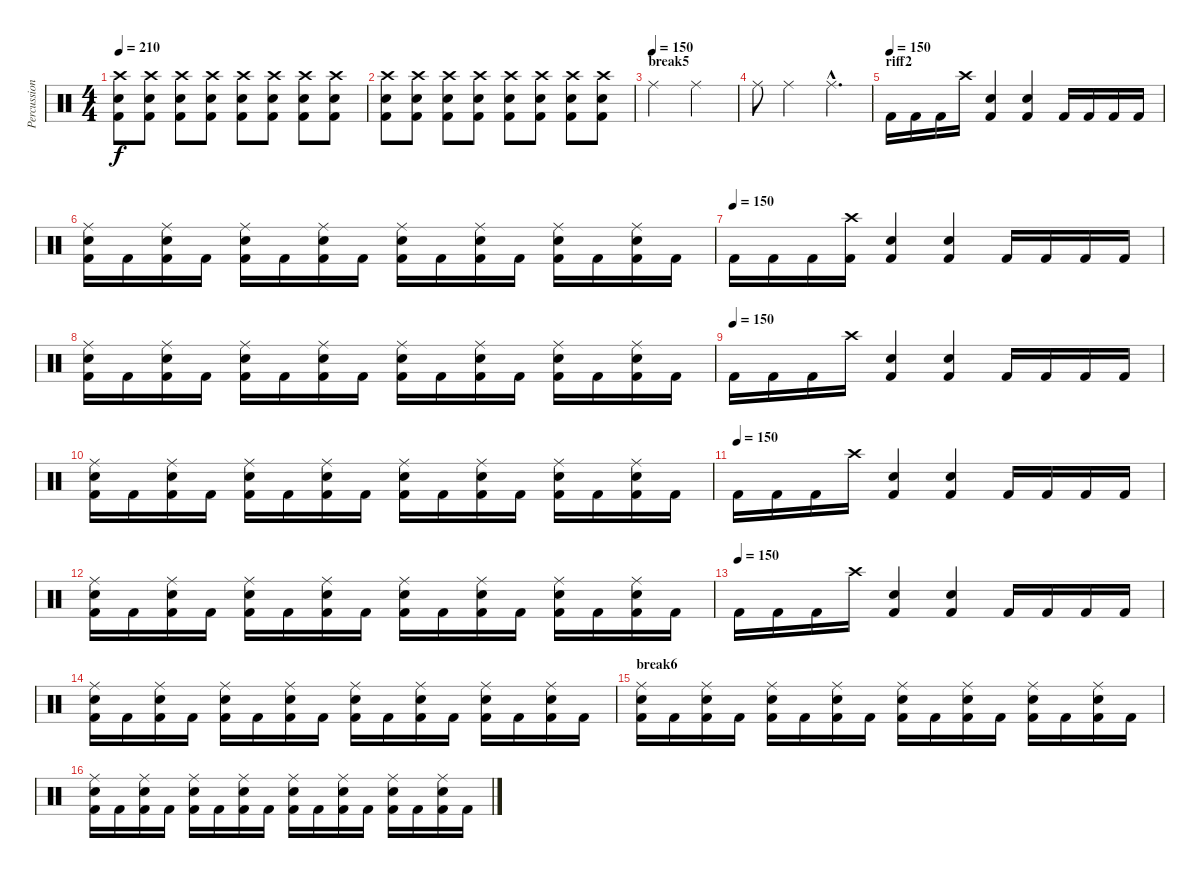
\track ("Percussion" "Percussion") {instrument percussion}
\staff {score}
\articulation defaults
\ts (4 4)
\tempo 210
\clef neutral
\ks c
("Crash high (hit)" "Snare (hit) 2" "Kick (hit) 2").8{dy f} ("Crash high (hit)" "Snare (hit) 2" "Kick (hit) 2").8 ("Crash high (hit)" "Snare (hit) 2" "Kick (hit) 2").8 ("Crash high (hit)" "Snare (hit) 2" "Kick (hit) 2").8 ("Crash high (hit)" "Snare (hit) 2" "Kick (hit) 2").8 ("Crash high (hit)" "Snare (hit) 2" "Kick (hit) 2").8 ("Crash high (hit)" "Snare (hit) 2" "Kick (hit) 2").8 ("Crash high (hit)" "Snare (hit) 2" "Kick (hit) 2").8 |
("Crash high (hit)" "Snare (hit) 2" "Kick (hit) 2").8 ("Crash high (hit)" "Snare (hit) 2" "Kick (hit) 2").8 ("Crash high (hit)" "Snare (hit) 2" "Kick (hit) 2").8 ("Crash high (hit)" "Snare (hit) 2" "Kick (hit) 2").8 ("Crash high (hit)" "Snare (hit) 2" "Kick (hit) 2").8 ("Crash high (hit)" "Snare (hit) 2" "Kick (hit) 2").8 ("Crash high (hit)" "Snare (hit) 2" "Kick (hit) 2").8 ("Crash high (hit)" "Snare (hit) 2" "Kick (hit) 2").8 |
\section ("" "break5")
\tempo (150)
"Ride (middle)".2 "Ride (middle)".2 |
"Ride (middle)".8 "Ride (middle)".2 "Ride (middle)"{hac}.4{d} |
\section ("" "riff2")
\tempo (150)
"Kick (hit) 2".16 "Kick (hit) 2".16 "Kick (hit) 2".16 "Crash high (hit)".16 ("Snare (hit) 2" "Kick (hit) 2").4 ("Snare (hit) 2" "Kick (hit) 2").4 "Kick (hit) 2".16 "Kick (hit) 2".16 "Kick (hit) 2".16 "Kick (hit) 2".16 |
("Ride (middle)" "Snare (hit) 2" "Kick (hit) 2").16 "Kick (hit) 2".16 ("Ride (middle)" "Snare (hit) 2" "Kick (hit) 2").16 "Kick (hit) 2".16 ("Ride (middle)" "Snare (hit) 2" "Kick (hit) 2").16 "Kick (hit) 2".16 ("Ride (middle)" "Snare (hit) 2" "Kick (hit) 2").16 "Kick (hit) 2".16 ("Ride (middle)" "Snare (hit) 2" "Kick (hit) 2").16 "Kick (hit) 2".16 ("Ride (middle)" "Snare (hit) 2" "Kick (hit) 2").16 "Kick (hit) 2".16 ("Ride (middle)" "Snare (hit) 2" "Kick (hit) 2").16 "Kick (hit) 2".16 ("Ride (middle)" "Snare (hit) 2" "Kick (hit) 2").16 "Kick (hit) 2".16 |
\tempo (150)
"Kick (hit) 2".16 "Kick (hit) 2".16 "Kick (hit) 2".16 ("Crash high (hit)" "Kick (hit) 2").16 ("Snare (hit) 2" "Kick (hit) 2").4 ("Snare (hit) 2" "Kick (hit) 2").4 "Kick (hit) 2".16 "Kick (hit) 2".16 "Kick (hit) 2".16 "Kick (hit) 2".16 |
("Ride (middle)" "Snare (hit) 2" "Kick (hit) 2").16 "Kick (hit) 2".16 ("Ride (middle)" "Snare (hit) 2" "Kick (hit) 2").16 "Kick (hit) 2".16 ("Ride (middle)" "Snare (hit) 2" "Kick (hit) 2").16 "Kick (hit) 2".16 ("Ride (middle)" "Snare (hit) 2" "Kick (hit) 2").16 "Kick (hit) 2".16 ("Ride (middle)" "Snare (hit) 2" "Kick (hit) 2").16 "Kick (hit) 2".16 ("Ride (middle)" "Snare (hit) 2" "Kick (hit) 2").16 "Kick (hit) 2".16 ("Ride (middle)" "Snare (hit) 2" "Kick (hit) 2").16 "Kick (hit) 2".16 ("Ride (middle)" "Snare (hit) 2" "Kick (hit) 2").16 "Kick (hit) 2".16 |
\tempo (150)
"Kick (hit) 2".16 "Kick (hit) 2".16 "Kick (hit) 2".16 "Crash high (hit)".16 ("Snare (hit) 2" "Kick (hit) 2").4 ("Snare (hit) 2" "Kick (hit) 2").4 "Kick (hit) 2".16 "Kick (hit) 2".16 "Kick (hit) 2".16 "Kick (hit) 2".16 |
("Ride (middle)" "Snare (hit) 2" "Kick (hit) 2").16 "Kick (hit) 2".16 ("Ride (middle)" "Snare (hit) 2" "Kick (hit) 2").16 "Kick (hit) 2".16 ("Ride (middle)" "Snare (hit) 2" "Kick (hit) 2").16 "Kick (hit) 2".16 ("Ride (middle)" "Snare (hit) 2" "Kick (hit) 2").16 "Kick (hit) 2".16 ("Ride (middle)" "Snare (hit) 2" "Kick (hit) 2").16 "Kick (hit) 2".16 ("Ride (middle)" "Snare (hit) 2" "Kick (hit) 2").16 "Kick (hit) 2".16 ("Ride (middle)" "Snare (hit) 2" "Kick (hit) 2").16 "Kick (hit) 2".16 ("Ride (middle)" "Snare (hit) 2" "Kick (hit) 2").16 "Kick (hit) 2".16 |
\tempo (150)
"Kick (hit) 2".16 "Kick (hit) 2".16 "Kick (hit) 2".16 "Crash high (hit)".16 ("Snare (hit) 2" "Kick (hit) 2").4 ("Snare (hit) 2" "Kick (hit) 2").4 "Kick (hit) 2".16 "Kick (hit) 2".16 "Kick (hit) 2".16 "Kick (hit) 2".16 |
("Ride (middle)" "Snare (hit) 2" "Kick (hit) 2").16 "Kick (hit) 2".16 ("Ride (middle)" "Snare (hit) 2" "Kick (hit) 2").16 "Kick (hit) 2".16 ("Ride (middle)" "Snare (hit) 2" "Kick (hit) 2").16 "Kick (hit) 2".16 ("Ride (middle)" "Snare (hit) 2" "Kick (hit) 2").16 "Kick (hit) 2".16 ("Ride (middle)" "Snare (hit) 2" "Kick (hit) 2").16 "Kick (hit) 2".16 ("Ride (middle)" "Snare (hit) 2" "Kick (hit) 2").16 "Kick (hit) 2".16 ("Ride (middle)" "Snare (hit) 2" "Kick (hit) 2").16 "Kick (hit) 2".16 ("Ride (middle)" "Snare (hit) 2" "Kick (hit) 2").16 "Kick (hit) 2".16 |
\tempo (150)
"Kick (hit) 2".16 "Kick (hit) 2".16 "Kick (hit) 2".16 "Crash high (hit)".16 ("Snare (hit) 2" "Kick (hit) 2").4 ("Snare (hit) 2" "Kick (hit) 2").4 "Kick (hit) 2".16 "Kick (hit) 2".16 "Kick (hit) 2".16 "Kick (hit) 2".16 |
("Ride (middle)" "Snare (hit) 2" "Kick (hit) 2").16 "Kick (hit) 2".16 ("Ride (middle)" "Snare (hit) 2" "Kick (hit) 2").16 "Kick (hit) 2".16 ("Ride (middle)" "Snare (hit) 2" "Kick (hit) 2").16 "Kick (hit) 2".16 ("Ride (middle)" "Snare (hit) 2" "Kick (hit) 2").16 "Kick (hit) 2".16 ("Ride (middle)" "Snare (hit) 2" "Kick (hit) 2").16 "Kick (hit) 2".16 ("Ride (middle)" "Snare (hit) 2" "Kick (hit) 2").16 "Kick (hit) 2".16 ("Ride (middle)" "Snare (hit) 2" "Kick (hit) 2").16 "Kick (hit) 2".16 ("Ride (middle)" "Snare (hit) 2" "Kick (hit) 2").16 "Kick (hit) 2".16 |
\section ("" "break6")
("Ride (middle)" "Snare (hit) 2" "Kick (hit) 2").16 "Kick (hit) 2".16 ("Ride (middle)" "Snare (hit) 2" "Kick (hit) 2").16 "Kick (hit) 2".16 ("Ride (middle)" "Snare (hit) 2" "Kick (hit) 2").16 "Kick (hit) 2".16 ("Ride (middle)" "Snare (hit) 2" "Kick (hit) 2").16 "Kick (hit) 2".16 ("Ride (middle)" "Snare (hit) 2" "Kick (hit) 2").16 "Kick (hit) 2".16 ("Ride (middle)" "Snare (hit) 2" "Kick (hit) 2").16 "Kick (hit) 2".16 ("Ride (middle)" "Snare (hit) 2" "Kick (hit) 2").16 "Kick (hit) 2".16 ("Ride (middle)" "Snare (hit) 2" "Kick (hit) 2").16 "Kick (hit) 2".16 |
("Ride (middle)" "Snare (hit) 2" "Kick (hit) 2").16 "Kick (hit) 2".16 ("Ride (middle)" "Snare (hit) 2" "Kick (hit) 2").16 "Kick (hit) 2".16 ("Ride (middle)" "Snare (hit) 2" "Kick (hit) 2").16 "Kick (hit) 2".16 ("Ride (middle)" "Snare (hit) 2" "Kick (hit) 2").16 "Kick (hit) 2".16 ("Ride (middle)" "Snare (hit) 2" "Kick (hit) 2").16 "Kick (hit) 2".16 ("Ride (middle)" "Snare (hit) 2" "Kick (hit) 2").16 "Kick (hit) 2".16 ("Ride (middle)" "Snare (hit) 2" "Kick (hit) 2").16 "Kick (hit) 2".16 ("Ride (middle)" "Snare (hit) 2" "Kick (hit) 2").16 "Kick (hit) 2".16
